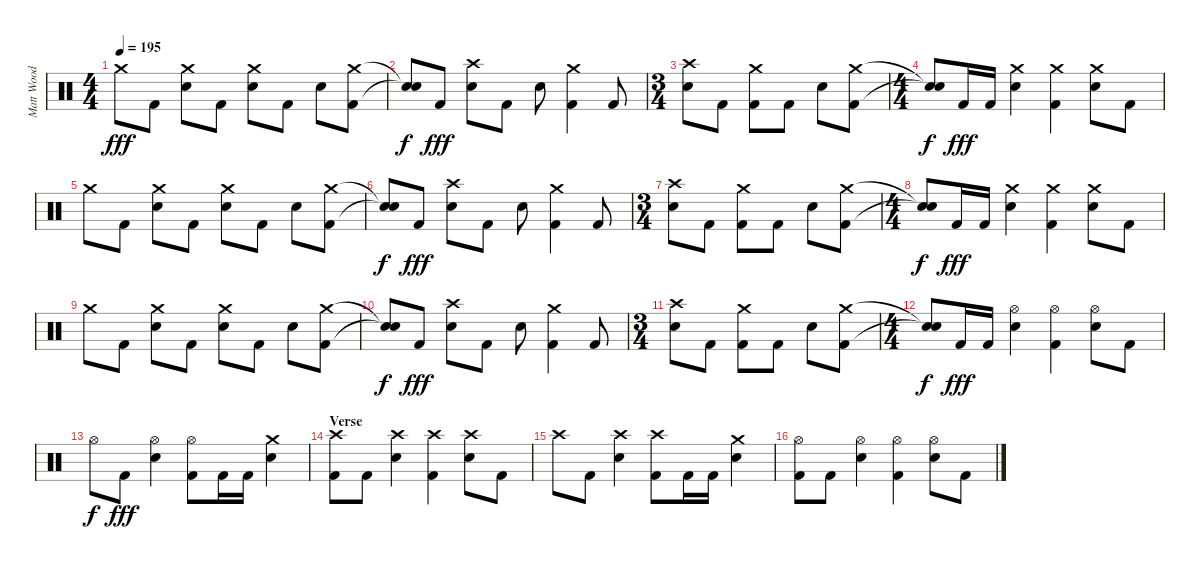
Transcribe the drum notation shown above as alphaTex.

\track ("Matt Wood" "Matt Wood") {instrument percussion}
\staff {score}
\articulation defaults
\ts (4 4)
\tempo 195
\clef neutral
\ks c "Crash medium (hit)".8{dy fff} "Kick (hit) 2".8
("Crash medium (hit)" "Snare (hit) 2").8 "Kick (hit) 2".8 ("Crash medium (hit)" "Snare (hit) 2").8 "Kick (hit) 2".8 "Snare (hit) 2".8 ("Crash medium (hit)" "Kick (hit) 2").8 |
("Snare (hit)"{t} "Snare (hit)"{t}).8{dy f} "Kick (hit) 2".8{dy fff} ("Crash high (hit)" "Snare (hit) 2").8 "Kick (hit) 2".8 "Snare (hit) 2".8 ("Crash medium (hit)" "Kick (hit) 2").4 "Kick (hit) 2".8 |
\ts (3 4)
("Crash high (hit)" "Snare (hit) 2").8 "Kick (hit) 2".8 ("Crash medium (hit)" "Kick (hit) 2").8 "Kick (hit) 2".8 "Snare (hit) 2".8 ("Crash medium (hit)" "Kick (hit) 2").8 |
\ts (4 4)
("Snare (hit)"{t} "Snare (hit)"{t}).8{dy f} "Kick (hit) 2".16{dy fff} "Kick (hit) 2".16 ("Crash medium (hit)" "Snare (hit) 2").4 ("Crash medium (hit)" "Kick (hit) 2").4 ("Crash medium (hit)" "Snare (hit) 2").8 "Kick (hit) 2".8 |
"Crash medium (hit)".8 "Kick (hit) 2".8 ("Crash medium (hit)" "Snare (hit) 2").8 "Kick (hit) 2".8 ("Crash medium (hit)" "Snare (hit) 2").8 "Kick (hit) 2".8 "Snare (hit) 2".8 ("Crash medium (hit)" "Kick (hit) 2").8 |
("Snare (hit)"{t} "Snare (hit)"{t}).8{dy f} "Kick (hit) 2".8{dy fff} ("Crash high (hit)" "Snare (hit) 2").8 "Kick (hit) 2".8 "Snare (hit) 2".8 ("Crash medium (hit)" "Kick (hit) 2").4 "Kick (hit) 2".8 |
\ts (3 4)
("Crash high (hit)" "Snare (hit) 2").8 "Kick (hit) 2".8 ("Crash medium (hit)" "Kick (hit) 2").8 "Kick (hit) 2".8 "Snare (hit) 2".8 ("Crash medium (hit)" "Kick (hit) 2").8 |
\ts (4 4)
("Snare (hit)"{t} "Snare (hit)"{t}).8{dy f} "Kick (hit) 2".16{dy fff} "Kick (hit) 2".16 ("Crash medium (hit)" "Snare (hit) 2").4 ("Crash medium (hit)" "Kick (hit) 2").4 ("Crash medium (hit)" "Snare (hit) 2").8 "Kick (hit) 2".8 |
"Crash medium (hit)".8 "Kick (hit) 2".8 ("Crash medium (hit)" "Snare (hit) 2").8 "Kick (hit) 2".8 ("Crash medium (hit)" "Snare (hit) 2").8 "Kick (hit) 2".8 "Snare (hit) 2".8 ("Crash medium (hit)" "Kick (hit) 2").8 |
("Snare (hit)"{t} "Snare (hit)"{t}).8{dy f} "Kick (hit) 2".8{dy fff} ("Crash high (hit)" "Snare (hit) 2").8 "Kick (hit) 2".8 "Snare (hit) 2".8 ("Crash medium (hit)" "Kick (hit) 2").4 "Kick (hit) 2".8 |
\ts (3 4)
("Crash high (hit)" "Snare (hit) 2").8 "Kick (hit) 2".8 ("Crash medium (hit)" "Kick (hit) 2").8 "Kick (hit) 2".8 "Snare (hit) 2".8 ("Crash medium (hit)" "Kick (hit) 2").8 |
\ts (4 4)
("Snare (hit)"{t} "Snare (hit)"{t}).8{dy f} "Kick (hit) 2".16{dy fff} "Kick (hit) 2".16 ("Hi-Hat (open)" "Snare (hit) 2").4 ("Hi-Hat (open)" "Kick (hit) 2").4 ("Hi-Hat (open)" "Snare (hit) 2").8 "Kick (hit) 2".8 |
"Hi-Hat (open)".8{dy f} "Kick (hit) 2".8{dy fff} ("Hi-Hat (open)" "Snare (hit) 2").4 ("Hi-Hat (open)" "Kick (hit) 2").8 "Kick (hit) 2".16 "Kick (hit) 2".16 ("Crash medium (hit)" "Snare (hit) 2").4 |
\section ("" "Verse")
("Crash high (hit)" "Kick (hit) 2").8 "Kick (hit) 2".8 ("Crash high (hit)" "Snare (hit) 2").4 ("Crash high (hit)" "Kick (hit) 2").4 ("Crash high (hit)" "Snare (hit) 2").8 "Kick (hit) 2".8 |
"Crash high (hit)".8 "Kick (hit) 2".8 ("Crash high (hit)" "Snare (hit) 2").4 ("Crash high (hit)" "Kick (hit) 2").8 "Kick (hit) 2".16 "Kick (hit) 2".16 ("Crash medium (hit)" "Snare (hit) 2").4 |
("Hi-Hat (open)" "Kick (hit) 2").8 "Kick (hit) 2".8 ("Hi-Hat (open)" "Snare (hit) 2").4 ("Hi-Hat (open)" "Kick (hit) 2").4 ("Hi-Hat (open)" "Snare (hit) 2").8 "Kick (hit) 2".8
